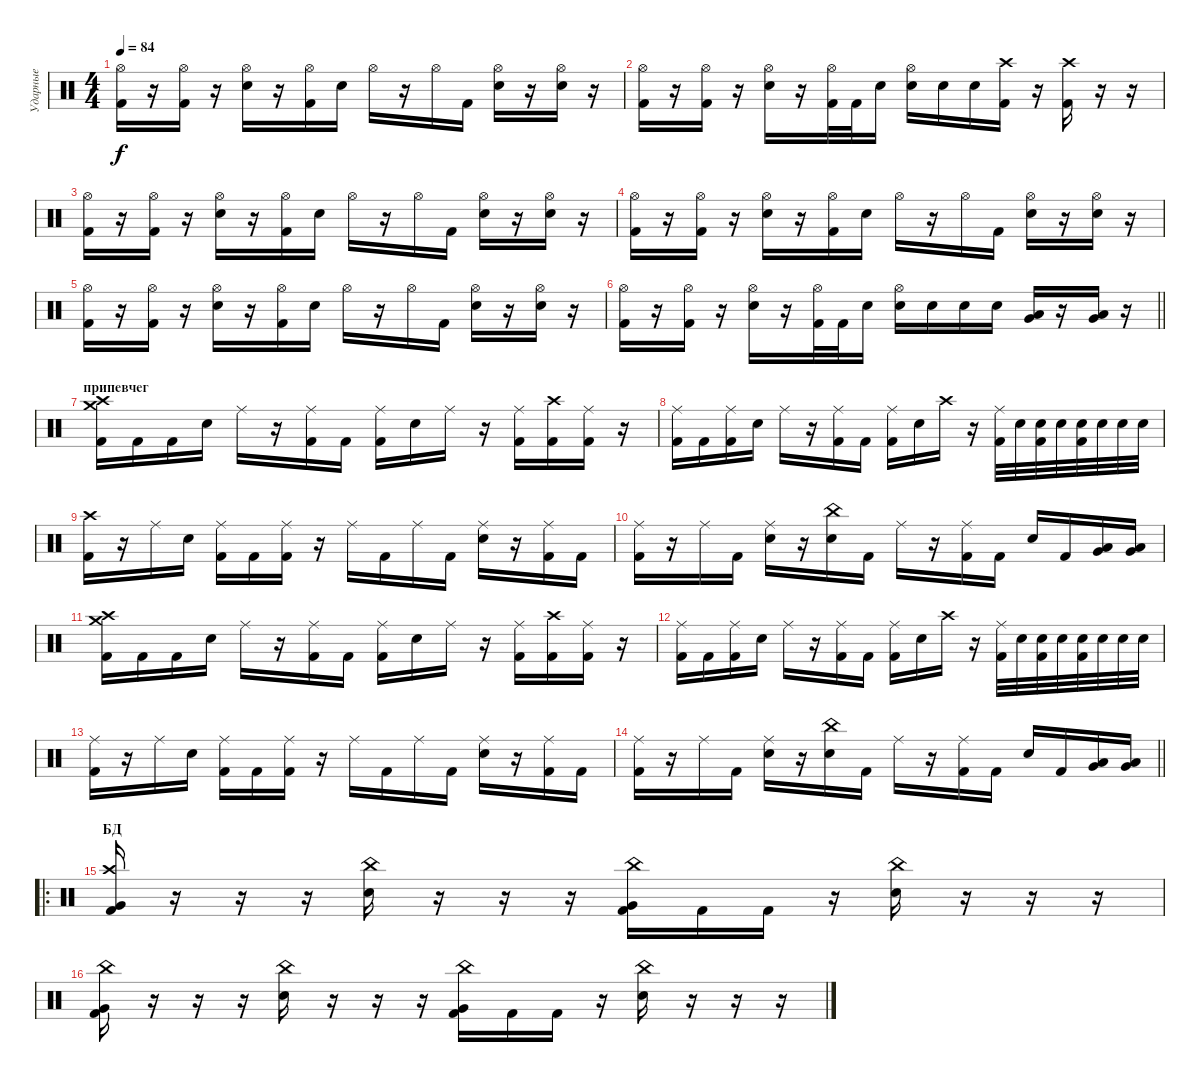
\track ("Ударные" "Ударные") {instrument percussion}
\staff {score}
\articulation defaults
\ts (4 4)
\tempo 84
\clef neutral
\ks c
("Hi-Hat (open)" "Kick (hit) 2").16{dy f} r.16 ("Hi-Hat (open)" "Kick (hit) 2").16 r.16 ("Hi-Hat (open)" "Snare (hit) 2").16 r.16 ("Hi-Hat (open)" "Kick (hit) 2").16 "Snare (hit) 2".16 "Hi-Hat (open)".16 r.16 "Hi-Hat (open)".16 "Kick (hit) 2".16 ("Hi-Hat (open)" "Snare (hit) 2").16 r.16 ("Hi-Hat (open)" "Snare (hit) 2").16 r.16 |
("Hi-Hat (open)" "Kick (hit) 2").16 r.16 ("Hi-Hat (open)" "Kick (hit) 2").16 r.16 ("Hi-Hat (open)" "Snare (hit) 2").16 r.16 ("Hi-Hat (open)" "Kick (hit) 2").32 "Kick (hit) 2".32 "Snare (hit) 2".16 ("Hi-Hat (open)" "Snare (hit) 2").16 "Snare (hit) 2".16 "Snare (hit) 2".16 ("Crash high (hit)" "Kick (hit) 2").16 r.16 ("Crash high (hit)" "Kick (hit) 2").16 r.16 r.16 |
("Hi-Hat (open)" "Kick (hit) 2").16 r.16 ("Hi-Hat (open)" "Kick (hit) 2").16 r.16 ("Hi-Hat (open)" "Snare (hit) 2").16 r.16 ("Hi-Hat (open)" "Kick (hit) 2").16 "Snare (hit) 2".16 "Hi-Hat (open)".16 r.16 "Hi-Hat (open)".16 "Kick (hit) 2".16 ("Hi-Hat (open)" "Snare (hit) 2").16 r.16 ("Hi-Hat (open)" "Snare (hit) 2").16 r.16 |
("Hi-Hat (open)" "Kick (hit) 2").16 r.16 ("Hi-Hat (open)" "Kick (hit) 2").16 r.16 ("Hi-Hat (open)" "Snare (hit) 2").16 r.16 ("Hi-Hat (open)" "Kick (hit) 2").16 "Snare (hit) 2".16 "Hi-Hat (open)".16 r.16 "Hi-Hat (open)".16 "Kick (hit) 2".16 ("Hi-Hat (open)" "Snare (hit) 2").16 r.16 ("Hi-Hat (open)" "Snare (hit) 2").16 r.16 |
("Hi-Hat (open)" "Kick (hit) 2").16 r.16 ("Hi-Hat (open)" "Kick (hit) 2").16 r.16 ("Hi-Hat (open)" "Snare (hit) 2").16 r.16 ("Hi-Hat (open)" "Kick (hit) 2").16 "Snare (hit) 2".16 "Hi-Hat (open)".16 r.16 "Hi-Hat (open)".16 "Kick (hit) 2".16 ("Hi-Hat (open)" "Snare (hit) 2").16 r.16 ("Hi-Hat (open)" "Snare (hit) 2").16 r.16 |
\barLineRight lightlight
("Hi-Hat (open)" "Kick (hit) 2").16 r.16 ("Hi-Hat (open)" "Kick (hit) 2").16 r.16 ("Hi-Hat (open)" "Snare (hit) 2").16 r.16 ("Hi-Hat (open)" "Kick (hit) 2").32 "Kick (hit) 2".32 "Snare (hit) 2".16 ("Hi-Hat (open)" "Snare (hit) 2").16 "Snare (hit) 2".16 "Snare (hit) 2".16 "Snare (hit) 2".16 ("Low Tom (hit)" "Very Low Tom (hit)").16 r.16 ("Very Low Tom (hit)" "Low Floor Tom (hit)").16 r.16 |
\section ("" "припевчег")
("Crash high (hit)" "Crash medium (hit)" "Kick (hit) 2").16 "Kick (hit) 2".16 "Kick (hit) 2".16 "Snare (hit) 2".16 "Ride (middle)".16 r.16 ("Ride (middle)" "Kick (hit) 2").16 "Kick (hit) 2".16 ("Ride (middle)" "Kick (hit) 2").16 "Snare (hit) 2".16 "Ride (middle)".16 r.16 ("Ride (middle)" "Kick (hit) 2").16 ("Crash high (hit)" "Kick (hit) 2").16 ("Ride (middle)" "Kick (hit) 2").16 r.16 |
("Ride (middle)" "Kick (hit) 2").16 "Kick (hit) 2".16 ("Ride (middle)" "Kick (hit) 2").16 "Snare (hit) 2".16 "Ride (middle)".16 r.16 ("Ride (middle)" "Kick (hit) 2").16 "Kick (hit) 2".16 ("Ride (middle)" "Kick (hit) 2").16 "Snare (hit) 2".16 "Crash high (hit)".16 r.16 ("Ride (middle)" "Kick (hit) 2").32 "Snare (hit) 2".32 ("Snare (hit) 2" "Kick (hit) 2").32 "Snare (hit) 2".32 ("Snare (hit) 2" "Kick (hit) 2").32 "Snare (hit) 2".32 "Snare (hit) 2".32 "Snare (hit) 2".32 |
("Crash high (hit)" "Kick (hit) 2").16 r.16 "Ride (middle)".16 "Snare (hit) 2".16 ("Ride (middle)" "Kick (hit) 2").16 "Kick (hit) 2".16 ("Ride (middle)" "Kick (hit) 2").16 r.16 "Ride (middle)".16 "Kick (hit) 2".16 "Ride (middle)".16 "Kick (hit) 2".16 ("Ride (middle)" "Snare (hit) 2").16 r.16 ("Ride (middle)" "Kick (hit) 2").16 "Kick (hit) 2".16 |
("Ride (middle)" "Kick (hit) 2").16 r.16 "Ride (middle)".16 "Kick (hit) 2".16 ("Ride (middle)" "Snare (hit) 2").16 r.16 ("China (hit)" "Snare (hit) 2").16 "Kick (hit) 2".16 "Ride (middle)".16 r.16 ("Ride (middle)" "Kick (hit) 2").16 "Kick (hit) 2".16 "Snare (hit) 2".16 "Kick (hit) 2".16 ("Low Tom (hit)" "Very Low Tom (hit)").16 ("Very Low Tom (hit)" "Low Floor Tom (hit)").16 |
("Crash high (hit)" "Crash medium (hit)" "Kick (hit) 2").16 "Kick (hit) 2".16 "Kick (hit) 2".16 "Snare (hit) 2".16 "Ride (middle)".16 r.16 ("Ride (middle)" "Kick (hit) 2").16 "Kick (hit) 2".16 ("Ride (middle)" "Kick (hit) 2").16 "Snare (hit) 2".16 "Ride (middle)".16 r.16 ("Ride (middle)" "Kick (hit) 2").16 ("Crash high (hit)" "Kick (hit) 2").16 ("Ride (middle)" "Kick (hit) 2").16 r.16 |
("Ride (middle)" "Kick (hit) 2").16 "Kick (hit) 2".16 ("Ride (middle)" "Kick (hit) 2").16 "Snare (hit) 2".16 "Ride (middle)".16 r.16 ("Ride (middle)" "Kick (hit) 2").16 "Kick (hit) 2".16 ("Ride (middle)" "Kick (hit) 2").16 "Snare (hit) 2".16 "Crash high (hit)".16 r.16 ("Ride (middle)" "Kick (hit) 2").32 "Snare (hit) 2".32 ("Snare (hit) 2" "Kick (hit) 2").32 "Snare (hit) 2".32 ("Snare (hit) 2" "Kick (hit) 2").32 "Snare (hit) 2".32 "Snare (hit) 2".32 "Snare (hit) 2".32 |
("Ride (middle)" "Kick (hit) 2").16 r.16 "Ride (middle)".16 "Snare (hit) 2".16 ("Ride (middle)" "Kick (hit) 2").16 "Kick (hit) 2".16 ("Ride (middle)" "Kick (hit) 2").16 r.16 "Ride (middle)".16 "Kick (hit) 2".16 "Ride (middle)".16 "Kick (hit) 2".16 ("Ride (middle)" "Snare (hit) 2").16 r.16 ("Ride (middle)" "Kick (hit) 2").16 "Kick (hit) 2".16 |
\barLineRight lightlight
("Ride (middle)" "Kick (hit) 2").16 r.16 "Ride (middle)".16 "Kick (hit) 2".16 ("Ride (middle)" "Snare (hit) 2").16 r.16 ("China (hit)" "Snare (hit) 2").16 "Kick (hit) 2".16 "Ride (middle)".16 r.16 ("Ride (middle)" "Kick (hit) 2").16 "Kick (hit) 2".16 "Snare (hit) 2".16 "Kick (hit) 2".16 ("Low Tom (hit)" "Very Low Tom (hit)").16 ("Very Low Tom (hit)" "Low Floor Tom (hit)").16 |
\ro
\section ("" "БД")
("Crash high (hit)" "Very Low Tom (hit)" "Kick (hit) 2").16 r.16 r.16 r.16 ("China (hit)" "Snare (hit) 2").16 r.16 r.16 r.16 ("China (hit)" "Very Low Tom (hit)" "Kick (hit) 2").16 "Kick (hit) 2".16 "Kick (hit) 2".16 r.16 ("China (hit)" "Snare (hit) 2").16 r.16 r.16 r.16 |
("China (hit)" "Very Low Tom (hit)" "Kick (hit) 2").16 r.16 r.16 r.16 ("China (hit)" "Snare (hit) 2").16 r.16 r.16 r.16 ("China (hit)" "Very Low Tom (hit)" "Kick (hit) 2").16 "Kick (hit) 2".16 "Kick (hit) 2".16 r.16 ("China (hit)" "Snare (hit) 2").16 r.16 r.16 r.16
